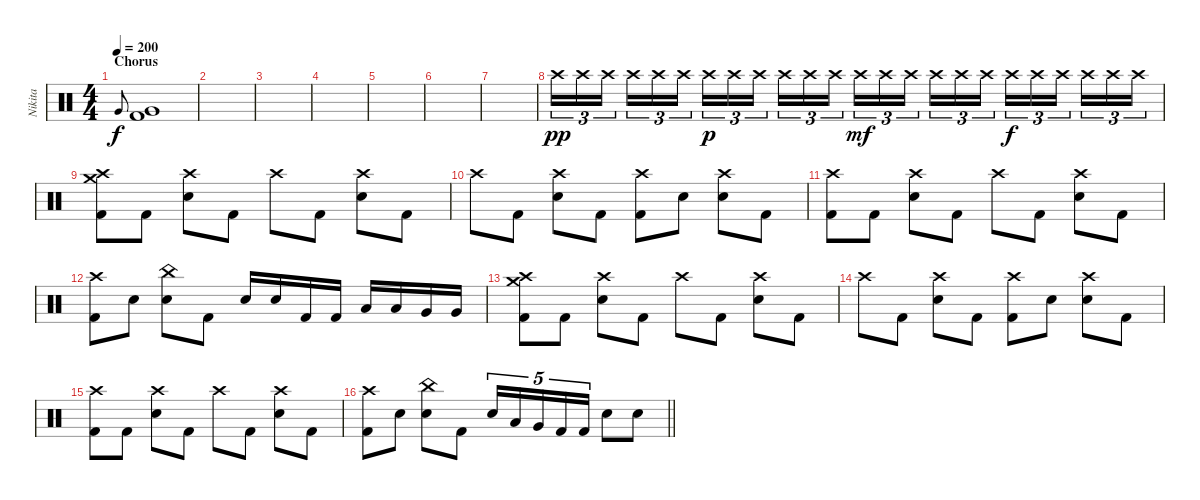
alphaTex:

\track ("Nikita" "Nikita") {instrument percussion}
\staff {score}
\articulation defaults
\ts (4 4)
\section ("" "Chorus")
\tempo 200
\clef neutral
\ks c "Very Low Tom (hit)"{x}.8{gr onbeat dy f}
("Very Low Tom (hit)" "Kick (hit) 2").1 |
|
|
|
|
|
|
"Crash high (hit)".16{tu (3 2) dy pp} "Crash high (hit)".16{tu (3 2)} "Crash high (hit)".16{tu (3 2) beam splitsecondary} "Crash high (hit)".16{tu (3 2)} "Crash high (hit)".16{tu (3 2)} "Crash high (hit)".16{tu (3 2)} "Crash high (hit)".16{tu (3 2) dy p} "Crash high (hit)".16{tu (3 2)} "Crash high (hit)".16{tu (3 2) beam splitsecondary} "Crash high (hit)".16{tu (3 2)} "Crash high (hit)".16{tu (3 2)} "Crash high (hit)".16{tu (3 2)} "Crash high (hit)".16{tu (3 2) dy mf} "Crash high (hit)".16{tu (3 2)} "Crash high (hit)".16{tu (3 2) beam splitsecondary} "Crash high (hit)".16{tu (3 2)} "Crash high (hit)".16{tu (3 2)} "Crash high (hit)".16{tu (3 2)} "Crash high (hit)".16{tu (3 2) dy f} "Crash high (hit)".16{tu (3 2)} "Crash high (hit)".16{tu (3 2) beam splitsecondary} "Crash high (hit)".16{tu (3 2)} "Crash high (hit)".16{tu (3 2)} "Crash high (hit)".16{tu (3 2)} |
("Crash high (hit)" "Crash medium (hit)" "Kick (hit) 2").8 "Kick (hit) 2".8 ("Crash high (hit)" "Electric Snare (hit)").8 "Kick (hit) 2".8 "Crash high (hit)".8 "Kick (hit) 2".8 ("Crash high (hit)" "Electric Snare (hit)").8 "Kick (hit) 2".8 |
"Crash high (hit)".8 "Kick (hit) 2".8 ("Crash high (hit)" "Electric Snare (hit)").8 "Kick (hit) 2".8 ("Crash high (hit)" "Kick (hit) 2").8 "Electric Snare (hit)".8 ("Crash high (hit)" "Electric Snare (hit)").8 "Kick (hit) 2".8 |
("Crash high (hit)" "Kick (hit) 2").8 "Kick (hit) 2".8 ("Crash high (hit)" "Electric Snare (hit)").8 "Kick (hit) 2".8 "Crash high (hit)".8 "Kick (hit) 2".8 ("Crash high (hit)" "Electric Snare (hit)").8 "Kick (hit) 2".8 |
("Crash high (hit)" "Kick (hit) 2").8 "Electric Snare (hit)".8 ("China (hit)" "Electric Snare (hit)").8 "Kick (hit) 2".8 "Electric Snare (hit)".16 "Electric Snare (hit)".16 "Kick (hit) 2".16 "Kick (hit) 2".16 "Low Tom (hit)".16 "Low Tom (hit)".16 "Very Low Tom (hit)".16 "Very Low Tom (hit)".16 |
("Crash high (hit)" "Crash medium (hit)" "Kick (hit) 2").8 "Kick (hit) 2".8 ("Crash high (hit)" "Electric Snare (hit)").8 "Kick (hit) 2".8 "Crash high (hit)".8 "Kick (hit) 2".8 ("Crash high (hit)" "Electric Snare (hit)").8 "Kick (hit) 2".8 |
"Crash high (hit)".8 "Kick (hit) 2".8 ("Crash high (hit)" "Electric Snare (hit)").8 "Kick (hit) 2".8 ("Crash high (hit)" "Kick (hit) 2").8 "Electric Snare (hit)".8 ("Crash high (hit)" "Electric Snare (hit)").8 "Kick (hit) 2".8 |
("Crash high (hit)" "Kick (hit) 2").8 "Kick (hit) 2".8 ("Crash high (hit)" "Electric Snare (hit)").8 "Kick (hit) 2".8 "Crash high (hit)".8 "Kick (hit) 2".8 ("Crash high (hit)" "Electric Snare (hit)").8 "Kick (hit) 2".8 |
\barLineRight lightlight
("Crash high (hit)" "Kick (hit) 2").8 "Electric Snare (hit)".8 ("China (hit)" "Electric Snare (hit)").8 "Kick (hit) 2".8 "Electric Snare (hit)".16{tu (5 4)} "Low Tom (hit)".16{tu (5 4)} "Very Low Tom (hit)".16{tu (5 4)} "Kick (hit) 2".16{tu (5 4)} "Kick (hit) 2".16{tu (5 4)} "Electric Snare (hit)".8 "Electric Snare (hit)".8
